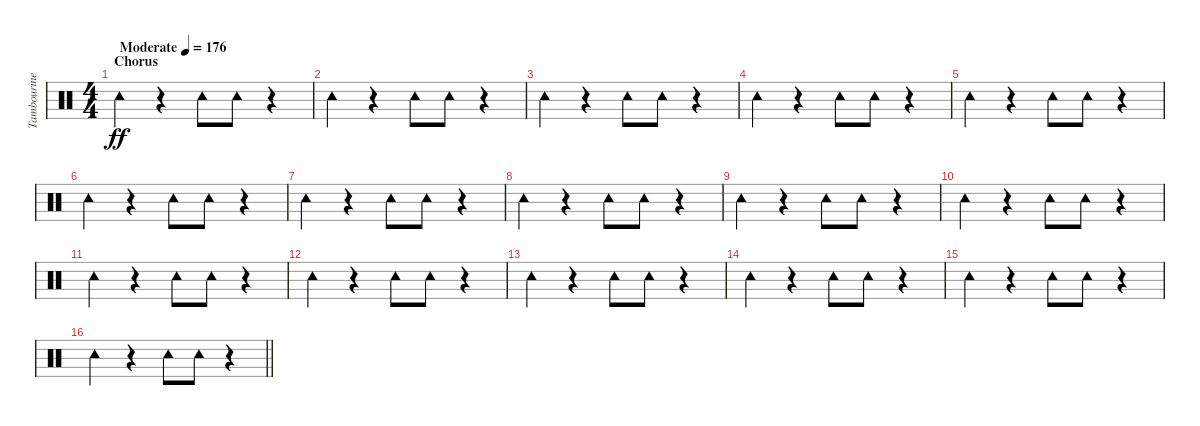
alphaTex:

\track ("Tambourine" "Tambourine") {instrument percussion}
\staff {score}
\articulation defaults
\ts (4 4)
\section ("" "Chorus")
\tempo (176 "Moderate")
\clef neutral
\ks c "Tambourine (hit)".4{dy ff}
r.4 "Tambourine (hit)".8 "Tambourine (hit)".8 r.4 |
"Tambourine (hit)".4 r.4 "Tambourine (hit)".8 "Tambourine (hit)".8 r.4 |
"Tambourine (hit)".4 r.4 "Tambourine (hit)".8 "Tambourine (hit)".8 r.4 |
"Tambourine (hit)".4 r.4 "Tambourine (hit)".8 "Tambourine (hit)".8 r.4 |
"Tambourine (hit)".4 r.4 "Tambourine (hit)".8 "Tambourine (hit)".8 r.4 |
"Tambourine (hit)".4 r.4 "Tambourine (hit)".8 "Tambourine (hit)".8 r.4 |
"Tambourine (hit)".4 r.4 "Tambourine (hit)".8 "Tambourine (hit)".8 r.4 |
"Tambourine (hit)".4 r.4 "Tambourine (hit)".8 "Tambourine (hit)".8 r.4 |
"Tambourine (hit)".4 r.4 "Tambourine (hit)".8 "Tambourine (hit)".8 r.4 |
"Tambourine (hit)".4 r.4 "Tambourine (hit)".8 "Tambourine (hit)".8 r.4 |
"Tambourine (hit)".4 r.4 "Tambourine (hit)".8 "Tambourine (hit)".8 r.4 |
"Tambourine (hit)".4 r.4 "Tambourine (hit)".8 "Tambourine (hit)".8 r.4 |
"Tambourine (hit)".4 r.4 "Tambourine (hit)".8 "Tambourine (hit)".8 r.4 |
"Tambourine (hit)".4 r.4 "Tambourine (hit)".8 "Tambourine (hit)".8 r.4 |
"Tambourine (hit)".4 r.4 "Tambourine (hit)".8 "Tambourine (hit)".8 r.4 |
\barLineRight lightlight "Tambourine (hit)".4
r.4 "Tambourine (hit)".8 "Tambourine (hit)".8 r.4
